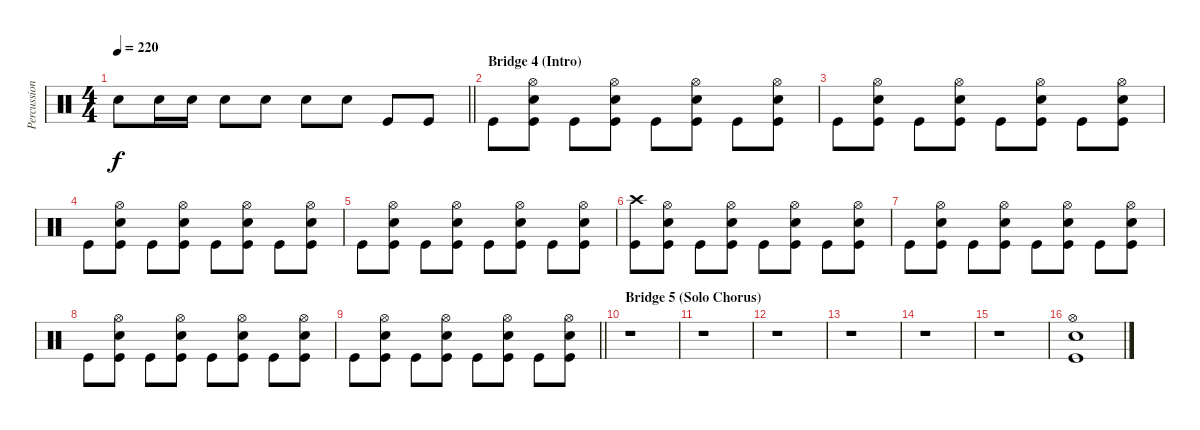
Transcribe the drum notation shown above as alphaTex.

\track ("Percussion" "Percussion") {instrument percussion}
\staff {score}
\articulation defaults
\ts (4 4)
\tempo 220
\clef neutral
\barLineRight lightlight
\ks c "Snare (hit) 2".8{dy f} "Snare (hit) 2".16 "Snare (hit) 2".16 "Snare (hit) 2".8 "Snare (hit) 2".8 "Snare (hit) 2".8 "Snare (hit) 2".8 "Kick (hit)".8 "Kick (hit)".8
|
\section ("" "Bridge 4 (Intro)")
"Kick (hit)".8 ("Kick (hit)" "Snare (hit) 2" "Hi-Hat (open)").8 "Kick (hit)".8 ("Kick (hit)" "Snare (hit) 2" "Hi-Hat (open)").8 "Kick (hit)".8 ("Kick (hit)" "Snare (hit) 2" "Hi-Hat (open)").8 "Kick (hit)".8 ("Kick (hit)" "Snare (hit) 2" "Hi-Hat (open)").8 |
"Kick (hit)".8 ("Kick (hit)" "Snare (hit) 2" "Hi-Hat (open)").8 "Kick (hit)".8 ("Kick (hit)" "Snare (hit) 2" "Hi-Hat (open)").8 "Kick (hit)".8 ("Kick (hit)" "Snare (hit) 2" "Hi-Hat (open)").8 "Kick (hit)".8 ("Kick (hit)" "Snare (hit) 2" "Hi-Hat (open)").8 |
"Kick (hit)".8 ("Kick (hit)" "Snare (hit) 2" "Hi-Hat (open)").8 "Kick (hit)".8 ("Kick (hit)" "Snare (hit) 2" "Hi-Hat (open)").8 "Kick (hit)".8 ("Kick (hit)" "Snare (hit) 2" "Hi-Hat (open)").8 "Kick (hit)".8 ("Kick (hit)" "Snare (hit) 2" "Hi-Hat (open)").8 |
"Kick (hit)".8 ("Kick (hit)" "Snare (hit) 2" "Hi-Hat (open)").8 "Kick (hit)".8 ("Kick (hit)" "Snare (hit) 2" "Hi-Hat (open)").8 "Kick (hit)".8 ("Kick (hit)" "Snare (hit) 2" "Hi-Hat (open)").8 "Kick (hit)".8 ("Kick (hit)" "Snare (hit) 2" "Hi-Hat (open)").8 |
("Kick (hit)" "Crash high (hit)").8 ("Kick (hit)" "Snare (hit) 2" "Hi-Hat (open)").8 "Kick (hit)".8 ("Kick (hit)" "Snare (hit) 2" "Hi-Hat (open)").8 "Kick (hit)".8 ("Kick (hit)" "Snare (hit) 2" "Hi-Hat (open)").8 "Kick (hit)".8 ("Kick (hit)" "Snare (hit) 2" "Hi-Hat (open)").8 |
"Kick (hit)".8 ("Kick (hit)" "Snare (hit) 2" "Hi-Hat (open)").8 "Kick (hit)".8 ("Kick (hit)" "Snare (hit) 2" "Hi-Hat (open)").8 "Kick (hit)".8 ("Kick (hit)" "Snare (hit) 2" "Hi-Hat (open)").8 "Kick (hit)".8 ("Kick (hit)" "Snare (hit) 2" "Hi-Hat (open)").8 |
"Kick (hit)".8 ("Kick (hit)" "Snare (hit) 2" "Hi-Hat (open)").8 "Kick (hit)".8 ("Kick (hit)" "Snare (hit) 2" "Hi-Hat (open)").8 "Kick (hit)".8 ("Kick (hit)" "Snare (hit) 2" "Hi-Hat (open)").8 "Kick (hit)".8 ("Kick (hit)" "Snare (hit) 2" "Hi-Hat (open)").8 |
\barLineRight lightlight "Kick (hit)".8
("Kick (hit)" "Snare (hit) 2" "Hi-Hat (open)").8 "Kick (hit)".8 ("Kick (hit)" "Snare (hit) 2" "Hi-Hat (open)").8 "Kick (hit)".8 ("Kick (hit)" "Snare (hit) 2" "Hi-Hat (open)").8 "Kick (hit)".8 ("Kick (hit)" "Snare (hit) 2" "Hi-Hat (open)").8 |
\section ("" "Bridge 5 (Solo Chorus)")
r.1 |
r.1 |
r.1 |
r.1 |
r.1 |
r.1 |
("Kick (hit)" "Snare (hit) 2" "Hi-Hat (open)").1
